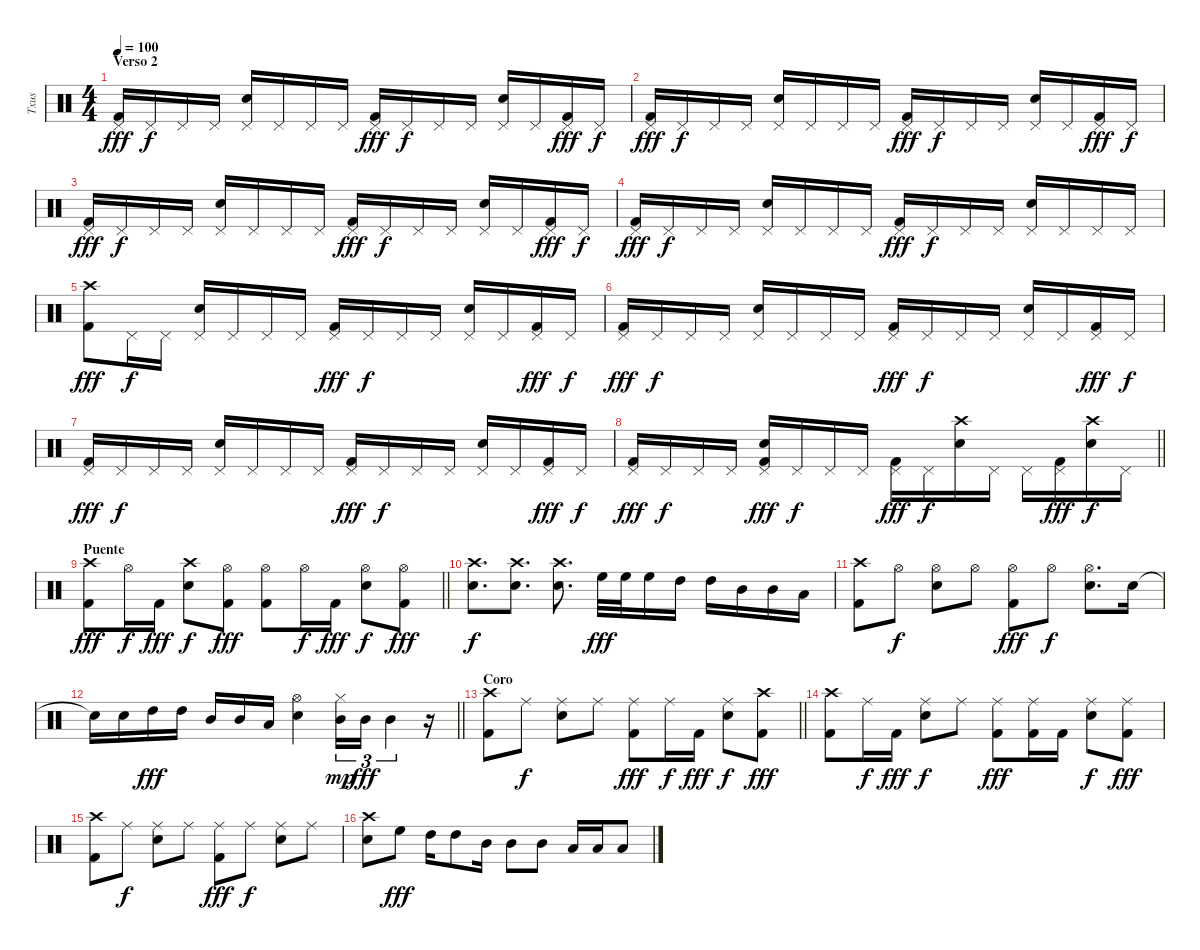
\track ("Txus" "Txus") {instrument percussion}
\staff {score}
\articulation defaults
\ts (4 4)
\section ("" "Verso 2")
\tempo 100
\clef neutral
\ks c
("Kick (hit) 2" "Pedal Hi-Hat (hit)").16{dy fff} "Pedal Hi-Hat (hit)".16{dy f} "Pedal Hi-Hat (hit)".16 "Pedal Hi-Hat (hit)".16 ("Electric Snare (hit)" "Pedal Hi-Hat (hit)").16 "Pedal Hi-Hat (hit)".16 "Pedal Hi-Hat (hit)".16 "Pedal Hi-Hat (hit)".16 ("Kick (hit) 2" "Pedal Hi-Hat (hit)").16{dy fff} "Pedal Hi-Hat (hit)".16{dy f} "Pedal Hi-Hat (hit)".16 "Pedal Hi-Hat (hit)".16 ("Electric Snare (hit)" "Pedal Hi-Hat (hit)").16 "Pedal Hi-Hat (hit)".16 ("Kick (hit) 2" "Pedal Hi-Hat (hit)").16{dy fff} "Pedal Hi-Hat (hit)".16{dy f} |
("Kick (hit) 2" "Pedal Hi-Hat (hit)").16{dy fff} "Pedal Hi-Hat (hit)".16{dy f} "Pedal Hi-Hat (hit)".16 "Pedal Hi-Hat (hit)".16 ("Electric Snare (hit)" "Pedal Hi-Hat (hit)").16 "Pedal Hi-Hat (hit)".16 "Pedal Hi-Hat (hit)".16 "Pedal Hi-Hat (hit)".16 ("Kick (hit) 2" "Pedal Hi-Hat (hit)").16{dy fff} "Pedal Hi-Hat (hit)".16{dy f} "Pedal Hi-Hat (hit)".16 "Pedal Hi-Hat (hit)".16 ("Electric Snare (hit)" "Pedal Hi-Hat (hit)").16 "Pedal Hi-Hat (hit)".16 ("Kick (hit) 2" "Pedal Hi-Hat (hit)").16{dy fff} "Pedal Hi-Hat (hit)".16{dy f} |
("Kick (hit) 2" "Pedal Hi-Hat (hit)").16{dy fff} "Pedal Hi-Hat (hit)".16{dy f} "Pedal Hi-Hat (hit)".16 "Pedal Hi-Hat (hit)".16 ("Electric Snare (hit)" "Pedal Hi-Hat (hit)").16 "Pedal Hi-Hat (hit)".16 "Pedal Hi-Hat (hit)".16 "Pedal Hi-Hat (hit)".16 ("Kick (hit) 2" "Pedal Hi-Hat (hit)").16{dy fff} "Pedal Hi-Hat (hit)".16{dy f} "Pedal Hi-Hat (hit)".16 "Pedal Hi-Hat (hit)".16 ("Electric Snare (hit)" "Pedal Hi-Hat (hit)").16 "Pedal Hi-Hat (hit)".16 ("Kick (hit) 2" "Pedal Hi-Hat (hit)").16{dy fff} "Pedal Hi-Hat (hit)".16{dy f} |
("Kick (hit) 2" "Pedal Hi-Hat (hit)").16{dy fff} "Pedal Hi-Hat (hit)".16{dy f} "Pedal Hi-Hat (hit)".16 "Pedal Hi-Hat (hit)".16 ("Electric Snare (hit)" "Pedal Hi-Hat (hit)").16 "Pedal Hi-Hat (hit)".16 "Pedal Hi-Hat (hit)".16 "Pedal Hi-Hat (hit)".16 ("Kick (hit) 2" "Pedal Hi-Hat (hit)").16{dy fff} "Pedal Hi-Hat (hit)".16{dy f} "Pedal Hi-Hat (hit)".16 "Pedal Hi-Hat (hit)".16 ("Electric Snare (hit)" "Pedal Hi-Hat (hit)").16 "Pedal Hi-Hat (hit)".16 "Pedal Hi-Hat (hit)".16 "Pedal Hi-Hat (hit)".16 |
("Kick (hit) 2" "Crash high (hit)").8{dy fff} "Pedal Hi-Hat (hit)".16{dy f} "Pedal Hi-Hat (hit)".16 ("Electric Snare (hit)" "Pedal Hi-Hat (hit)").16 "Pedal Hi-Hat (hit)".16 "Pedal Hi-Hat (hit)".16 "Pedal Hi-Hat (hit)".16 ("Kick (hit) 2" "Pedal Hi-Hat (hit)").16{dy fff} "Pedal Hi-Hat (hit)".16{dy f} "Pedal Hi-Hat (hit)".16 "Pedal Hi-Hat (hit)".16 ("Electric Snare (hit)" "Pedal Hi-Hat (hit)").16 "Pedal Hi-Hat (hit)".16 ("Kick (hit) 2" "Pedal Hi-Hat (hit)").16{dy fff} "Pedal Hi-Hat (hit)".16{dy f} |
("Kick (hit) 2" "Pedal Hi-Hat (hit)").16{dy fff} "Pedal Hi-Hat (hit)".16{dy f} "Pedal Hi-Hat (hit)".16 "Pedal Hi-Hat (hit)".16 ("Electric Snare (hit)" "Pedal Hi-Hat (hit)").16 "Pedal Hi-Hat (hit)".16 "Pedal Hi-Hat (hit)".16 "Pedal Hi-Hat (hit)".16 ("Kick (hit) 2" "Pedal Hi-Hat (hit)").16{dy fff} "Pedal Hi-Hat (hit)".16{dy f} "Pedal Hi-Hat (hit)".16 "Pedal Hi-Hat (hit)".16 ("Electric Snare (hit)" "Pedal Hi-Hat (hit)").16 "Pedal Hi-Hat (hit)".16 ("Kick (hit) 2" "Pedal Hi-Hat (hit)").16{dy fff} "Pedal Hi-Hat (hit)".16{dy f} |
("Kick (hit) 2" "Pedal Hi-Hat (hit)").16{dy fff} "Pedal Hi-Hat (hit)".16{dy f} "Pedal Hi-Hat (hit)".16 "Pedal Hi-Hat (hit)".16 ("Electric Snare (hit)" "Pedal Hi-Hat (hit)").16 "Pedal Hi-Hat (hit)".16 "Pedal Hi-Hat (hit)".16 "Pedal Hi-Hat (hit)".16 ("Kick (hit) 2" "Pedal Hi-Hat (hit)").16{dy fff} "Pedal Hi-Hat (hit)".16{dy f} "Pedal Hi-Hat (hit)".16 "Pedal Hi-Hat (hit)".16 ("Electric Snare (hit)" "Pedal Hi-Hat (hit)").16 "Pedal Hi-Hat (hit)".16 ("Kick (hit) 2" "Pedal Hi-Hat (hit)").16{dy fff} "Pedal Hi-Hat (hit)".16{dy f} |
\barLineRight lightlight
("Kick (hit) 2" "Pedal Hi-Hat (hit)").16{dy fff} "Pedal Hi-Hat (hit)".16{dy f} "Pedal Hi-Hat (hit)".16 "Pedal Hi-Hat (hit)".16 ("Kick (hit) 2" "Electric Snare (hit)" "Pedal Hi-Hat (hit)").16{dy fff} "Pedal Hi-Hat (hit)".16{dy f} "Pedal Hi-Hat (hit)".16 "Pedal Hi-Hat (hit)".16 ("Kick (hit) 2" "Pedal Hi-Hat (hit)").16{dy fff} "Pedal Hi-Hat (hit)".16{dy f} ("Electric Snare (hit)" "Crash high (hit)").16 "Pedal Hi-Hat (hit)".16 "Pedal Hi-Hat (hit)".16 ("Kick (hit) 2" "Pedal Hi-Hat (hit)").16{dy fff} ("Electric Snare (hit)" "Crash high (hit)").16{dy f} "Pedal Hi-Hat (hit)".16 |
\section ("" "Puente")
\barLineRight lightlight
("Kick (hit) 2" "Crash high (hit)").8{dy fff} "Hi-Hat (open)".16{dy f} "Kick (hit) 2".16{dy fff} ("Electric Snare (hit)" "Crash high (hit)").8{dy f} ("Kick (hit) 2" "Hi-Hat (open)").8{dy fff} ("Kick (hit) 2" "Hi-Hat (open)").8 "Hi-Hat (open)".16{dy f} "Kick (hit) 2".16{dy fff} ("Electric Snare (hit)" "Hi-Hat (open)").8{dy f} ("Kick (hit) 2" "Hi-Hat (open)").8{dy fff} |
("Electric Snare (hit)" "Crash high (hit)").8{d dy f} ("Electric Snare (hit)" "Crash high (hit)").8{d} ("Electric Snare (hit)" "Crash high (hit)").8{d} "High Floor Tom (hit)".32{dy fff} "High Floor Tom (hit)".32 "High Floor Tom (hit)".16 "High Tom (hit)".16 "High Tom (hit)".16 "Mid Tom (hit)".16 "Mid Tom (hit)".16 "Low Tom (hit)".16 |
("Kick (hit) 2" "Crash high (hit)").8 "Hi-Hat (open)".8{dy f} ("Electric Snare (hit)" "Hi-Hat (open)").8 "Hi-Hat (open)".8 ("Kick (hit) 2" "Hi-Hat (open)").8{dy fff} "Hi-Hat (open)".8{dy f} ("Electric Snare (hit)" "Hi-Hat (open)").8{d} "Electric Snare (hit)".16 |
\barLineRight lightlight "Snare (hit)"{t}.16 "Electric Snare (hit)".16 "High Tom (hit)".16{dy fff} "High Tom (hit)".16 "Mid Tom (hit)".16 "Mid Tom (hit)".16 "Low Tom (hit)".16
("Electric Snare (hit)" "Hi-Hat (open)").4 ("Mid Tom (hit)" "Hi-Hat (closed)").16{tu (3 2) dy mp} "Mid Tom (hit)".16{tu (3 2) dy fff} "Mid Tom (hit)".4{tu (3 2)} r.16 |
\section ("" "Coro")
\barLineRight lightlight
("Kick (hit) 2" "Crash high (hit)").8 "Ride (middle)".8{dy f} ("Electric Snare (hit)" "Ride (middle)").8 "Ride (middle)".8 ("Kick (hit) 2" "Ride (middle)").8{dy fff} "Ride (middle)".16{dy f} "Kick (hit) 2".16{dy fff} ("Electric Snare (hit)" "Ride (middle)").8{dy f} ("Kick (hit) 2" "Crash high (hit)").8{dy fff} |
("Kick (hit) 2" "Crash high (hit)").8 "Ride (middle)".16{dy f} "Kick (hit) 2".16{dy fff} ("Electric Snare (hit)" "Ride (middle)").8{dy f} "Ride (middle)".8 ("Kick (hit) 2" "Ride (middle)").8{dy fff} ("Kick (hit) 2" "Ride (middle)").16 "Kick (hit) 2".16 ("Electric Snare (hit)" "Ride (middle)").8{dy f} ("Kick (hit) 2" "Ride (middle)").8{dy fff} |
("Kick (hit) 2" "Crash high (hit)").8 "Ride (middle)".8{dy f} ("Electric Snare (hit)" "Ride (middle)").8 "Ride (middle)".8 ("Kick (hit) 2" "Ride (middle)").8{dy fff} "Ride (middle)".8{dy f} ("Electric Snare (hit)" "Ride (middle)").8 "Ride (middle)".8 |
("Electric Snare (hit)" "Crash high (hit)").8 "High Floor Tom (hit)".8{dy fff} "High Tom (hit)".16 "High Tom (hit)".8 "Mid Tom (hit)".16 "Mid Tom (hit)".8 "Mid Tom (hit)".8 "Low Tom (hit)".16 "Low Tom (hit)".16 "Low Tom (hit)".8
